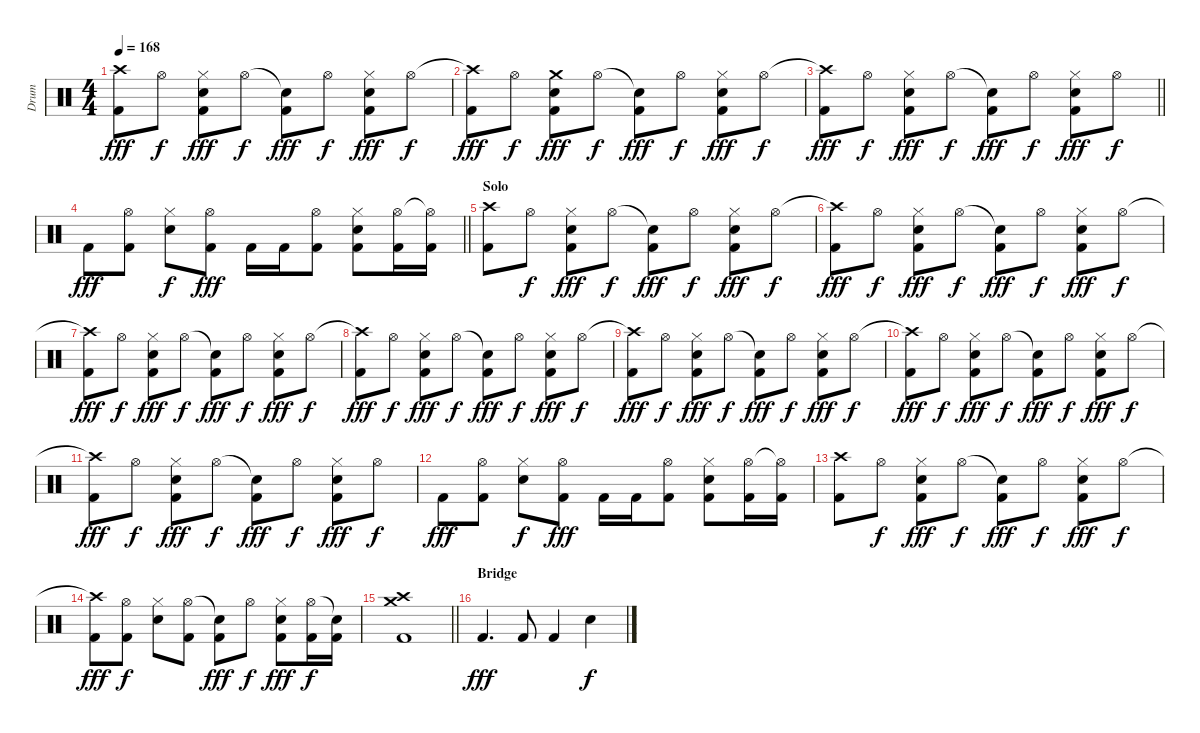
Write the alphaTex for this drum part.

\track ("Drum" "Drum") {instrument percussion}
\staff {score}
\articulation defaults
\ts (4 4)
\tempo 168
\clef neutral
\ks c
("Crash high (hit)" "Kick (hit) 2").8{dy fff} "Hi-Hat (open)".8{dy f} ("Hi-Hat (closed)" "Snare (hit) 2" "Kick (hit) 2").8{dy fff} "Hi-Hat (open)".8{dy f} ("Snare (hit)"{t} "Kick (hit) 2").8{dy fff} "Hi-Hat (open)".8{dy f} ("Hi-Hat (closed)" "Snare (hit) 2" "Kick (hit) 2").8{dy fff} "Hi-Hat (open)".8{dy f} |
("Crash high (hit)"{t} "Kick (hit) 2").8{dy fff} "Hi-Hat (open)".8{dy f} ("Crash medium (hit)" "Snare (hit) 2" "Kick (hit) 2").8{dy fff} "Hi-Hat (open)".8{dy f} ("Snare (hit)"{t} "Kick (hit) 2").8{dy fff} "Hi-Hat (open)".8{dy f} ("Hi-Hat (closed)" "Snare (hit) 2" "Kick (hit) 2").8{dy fff} "Hi-Hat (open)".8{dy f} |
\barLineRight lightlight
("Crash high (hit)"{t} "Kick (hit) 2").8{dy fff} "Hi-Hat (open)".8{dy f} ("Hi-Hat (closed)" "Snare (hit) 2" "Kick (hit) 2").8{dy fff} "Hi-Hat (open)".8{dy f} ("Snare (hit)"{t} "Kick (hit) 2").8{dy fff} "Hi-Hat (open)".8{dy f} ("Hi-Hat (closed)" "Snare (hit) 2" "Kick (hit) 2").8{dy fff} "Hi-Hat (open)".8{dy f} |
\barLineRight lightlight "Kick (hit) 2".8{dy fff}
("Hi-Hat (open)" "Kick (hit) 2").8 ("Hi-Hat (closed)" "Snare (hit) 2").8{dy f} ("Hi-Hat (open)" "Kick (hit) 2").8{dy fff} "Kick (hit) 2".16 "Kick (hit) 2".16 ("Hi-Hat (open)" "Kick (hit) 2").8 ("Hi-Hat (closed)" "Snare (hit) 2" "Kick (hit) 2").8 ("Hi-Hat (open)" "Kick (hit) 2").16 ("Hi-Hat (open)"{t} "Kick (hit) 2").16 |
\section ("" "Solo")
("Crash high (hit)" "Kick (hit) 2").8 "Hi-Hat (open)".8{dy f} ("Hi-Hat (closed)" "Snare (hit) 2" "Kick (hit) 2").8{dy fff} "Hi-Hat (open)".8{dy f} ("Snare (hit)"{t} "Kick (hit) 2").8{dy fff} "Hi-Hat (open)".8{dy f} ("Hi-Hat (closed)" "Snare (hit) 2" "Kick (hit) 2").8{dy fff} "Hi-Hat (open)".8{dy f} |
("Crash high (hit)"{t} "Kick (hit) 2").8{dy fff} "Hi-Hat (open)".8{dy f} ("Hi-Hat (closed)" "Snare (hit) 2" "Kick (hit) 2").8{dy fff} "Hi-Hat (open)".8{dy f} ("Snare (hit)"{t} "Kick (hit) 2").8{dy fff} "Hi-Hat (open)".8{dy f} ("Hi-Hat (closed)" "Snare (hit) 2" "Kick (hit) 2").8{dy fff} "Hi-Hat (open)".8{dy f} |
("Crash high (hit)"{t} "Kick (hit) 2").8{dy fff} "Hi-Hat (open)".8{dy f} ("Hi-Hat (closed)" "Snare (hit) 2" "Kick (hit) 2").8{dy fff} "Hi-Hat (open)".8{dy f} ("Snare (hit)"{t} "Kick (hit) 2").8{dy fff} "Hi-Hat (open)".8{dy f} ("Hi-Hat (closed)" "Snare (hit) 2" "Kick (hit) 2").8{dy fff} "Hi-Hat (open)".8{dy f} |
("Crash high (hit)"{t} "Kick (hit) 2").8{dy fff} "Hi-Hat (open)".8{dy f} ("Hi-Hat (closed)" "Snare (hit) 2" "Kick (hit) 2").8{dy fff} "Hi-Hat (open)".8{dy f} ("Snare (hit)"{t} "Kick (hit) 2").8{dy fff} "Hi-Hat (open)".8{dy f} ("Hi-Hat (closed)" "Snare (hit) 2" "Kick (hit) 2").8{dy fff} "Hi-Hat (open)".8{dy f} |
("Crash high (hit)"{t} "Kick (hit) 2").8{dy fff} "Hi-Hat (open)".8{dy f} ("Hi-Hat (closed)" "Snare (hit) 2" "Kick (hit) 2").8{dy fff} "Hi-Hat (open)".8{dy f} ("Snare (hit)"{t} "Kick (hit) 2").8{dy fff} "Hi-Hat (open)".8{dy f} ("Hi-Hat (closed)" "Snare (hit) 2" "Kick (hit) 2").8{dy fff} "Hi-Hat (open)".8{dy f} |
("Crash high (hit)"{t} "Kick (hit) 2").8{dy fff} "Hi-Hat (open)".8{dy f} ("Hi-Hat (closed)" "Snare (hit) 2" "Kick (hit) 2").8{dy fff} "Hi-Hat (open)".8{dy f} ("Snare (hit)"{t} "Kick (hit) 2").8{dy fff} "Hi-Hat (open)".8{dy f} ("Hi-Hat (closed)" "Snare (hit) 2" "Kick (hit) 2").8{dy fff} "Hi-Hat (open)".8{dy f} |
("Crash high (hit)"{t} "Kick (hit) 2").8{dy fff} "Hi-Hat (open)".8{dy f} ("Hi-Hat (closed)" "Snare (hit) 2" "Kick (hit) 2").8{dy fff} "Hi-Hat (open)".8{dy f} ("Snare (hit)"{t} "Kick (hit) 2").8{dy fff} "Hi-Hat (open)".8{dy f} ("Hi-Hat (closed)" "Snare (hit) 2" "Kick (hit) 2").8{dy fff} "Hi-Hat (open)".8{dy f} |
"Kick (hit) 2".8{dy fff} ("Hi-Hat (open)" "Kick (hit) 2").8 ("Hi-Hat (closed)" "Snare (hit) 2").8{dy f} ("Hi-Hat (open)" "Kick (hit) 2").8{dy fff} "Kick (hit) 2".16 "Kick (hit) 2".16 ("Hi-Hat (open)" "Kick (hit) 2").8 ("Hi-Hat (closed)" "Snare (hit) 2" "Kick (hit) 2").8 ("Hi-Hat (open)" "Kick (hit) 2").16 ("Hi-Hat (open)"{t} "Kick (hit) 2").16 |
("Crash high (hit)" "Kick (hit) 2").8 "Hi-Hat (open)".8{dy f} ("Hi-Hat (closed)" "Snare (hit) 2" "Kick (hit) 2").8{dy fff} "Hi-Hat (open)".8{dy f} ("Snare (hit)"{t} "Kick (hit) 2").8{dy fff} "Hi-Hat (open)".8{dy f} ("Hi-Hat (closed)" "Snare (hit) 2" "Kick (hit) 2").8{dy fff} "Hi-Hat (open)".8{dy f} |
("Crash high (hit)"{t} "Kick (hit) 2").8{dy fff} ("Hi-Hat (open)" "Kick (hit) 2").8{dy f} ("Hi-Hat (closed)" "Snare (hit) 2").8 ("Hi-Hat (open)" "Kick (hit) 2").8 ("Snare (hit)"{t} "Kick (hit) 2").8{dy fff} "Hi-Hat (open)".8{dy f} ("Hi-Hat (closed)" "Snare (hit) 2" "Kick (hit) 2").8{dy fff} ("Hi-Hat (open)" "Kick (hit) 2").16{dy f} ("Snare (hit)"{t} "Kick (hit) 2").16 |
\barLineRight lightlight
("Crash medium (hit)" "Crash high (hit)" "Kick (hit) 2").1 |
\section ("" "Bridge")
"Kick (hit) 2".4{d dy fff} "Kick (hit) 2".8 "Kick (hit) 2".4 "Snare (hit) 2".4{dy f}
